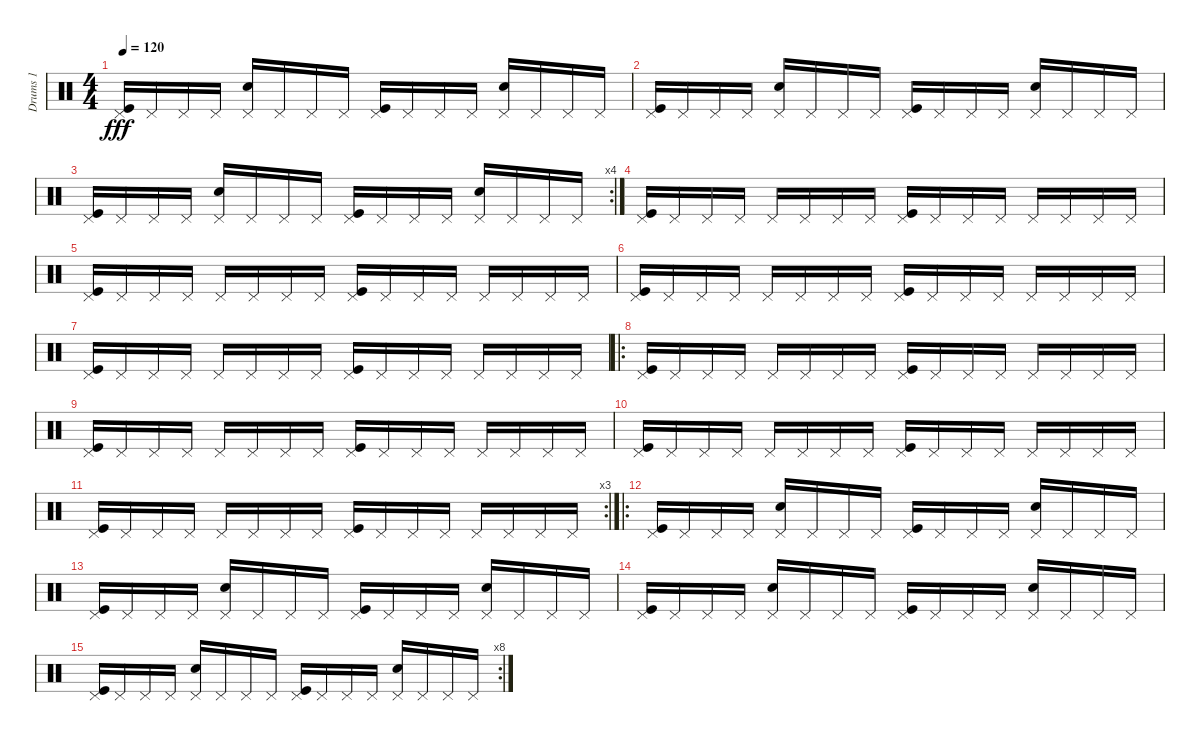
\track ("Drums 1" "Drums 1") {instrument percussion}
\staff {score}
\articulation defaults
\ts (4 4)
\tempo 120
\clef neutral
\ks c
("Pedal Hi-Hat (hit)" "Kick (hit)").16{dy fff} "Pedal Hi-Hat (hit)".16 "Pedal Hi-Hat (hit)".16 "Pedal Hi-Hat (hit)".16 ("Pedal Hi-Hat (hit)" "Snare (hit) 2").16 "Pedal Hi-Hat (hit)".16 "Pedal Hi-Hat (hit)".16 "Pedal Hi-Hat (hit)".16 ("Pedal Hi-Hat (hit)" "Kick (hit)").16 "Pedal Hi-Hat (hit)".16 "Pedal Hi-Hat (hit)".16 "Pedal Hi-Hat (hit)".16 ("Pedal Hi-Hat (hit)" "Snare (hit) 2").16 "Pedal Hi-Hat (hit)".16 "Pedal Hi-Hat (hit)".16 "Pedal Hi-Hat (hit)".16 |
("Pedal Hi-Hat (hit)" "Kick (hit)").16 "Pedal Hi-Hat (hit)".16 "Pedal Hi-Hat (hit)".16 "Pedal Hi-Hat (hit)".16 ("Pedal Hi-Hat (hit)" "Snare (hit) 2").16 "Pedal Hi-Hat (hit)".16 "Pedal Hi-Hat (hit)".16 "Pedal Hi-Hat (hit)".16 ("Pedal Hi-Hat (hit)" "Kick (hit)").16 "Pedal Hi-Hat (hit)".16 "Pedal Hi-Hat (hit)".16 "Pedal Hi-Hat (hit)".16 ("Pedal Hi-Hat (hit)" "Snare (hit) 2").16 "Pedal Hi-Hat (hit)".16 "Pedal Hi-Hat (hit)".16 "Pedal Hi-Hat (hit)".16 |
\rc 4
("Pedal Hi-Hat (hit)" "Kick (hit)").16 "Pedal Hi-Hat (hit)".16 "Pedal Hi-Hat (hit)".16 "Pedal Hi-Hat (hit)".16 ("Pedal Hi-Hat (hit)" "Snare (hit) 2").16 "Pedal Hi-Hat (hit)".16 "Pedal Hi-Hat (hit)".16 "Pedal Hi-Hat (hit)".16 ("Pedal Hi-Hat (hit)" "Kick (hit)").16 "Pedal Hi-Hat (hit)".16 "Pedal Hi-Hat (hit)".16 "Pedal Hi-Hat (hit)".16 ("Pedal Hi-Hat (hit)" "Snare (hit) 2").16 "Pedal Hi-Hat (hit)".16 "Pedal Hi-Hat (hit)".16 "Pedal Hi-Hat (hit)".16 |
("Pedal Hi-Hat (hit)" "Kick (hit)").16 "Pedal Hi-Hat (hit)".16 "Pedal Hi-Hat (hit)".16 "Pedal Hi-Hat (hit)".16 "Pedal Hi-Hat (hit)".16 "Pedal Hi-Hat (hit)".16 "Pedal Hi-Hat (hit)".16 "Pedal Hi-Hat (hit)".16 ("Pedal Hi-Hat (hit)" "Kick (hit)").16 "Pedal Hi-Hat (hit)".16 "Pedal Hi-Hat (hit)".16 "Pedal Hi-Hat (hit)".16 "Pedal Hi-Hat (hit)".16 "Pedal Hi-Hat (hit)".16 "Pedal Hi-Hat (hit)".16 "Pedal Hi-Hat (hit)".16 |
("Pedal Hi-Hat (hit)" "Kick (hit)").16 "Pedal Hi-Hat (hit)".16 "Pedal Hi-Hat (hit)".16 "Pedal Hi-Hat (hit)".16 "Pedal Hi-Hat (hit)".16 "Pedal Hi-Hat (hit)".16 "Pedal Hi-Hat (hit)".16 "Pedal Hi-Hat (hit)".16 ("Pedal Hi-Hat (hit)" "Kick (hit)").16 "Pedal Hi-Hat (hit)".16 "Pedal Hi-Hat (hit)".16 "Pedal Hi-Hat (hit)".16 "Pedal Hi-Hat (hit)".16 "Pedal Hi-Hat (hit)".16 "Pedal Hi-Hat (hit)".16 "Pedal Hi-Hat (hit)".16 |
("Pedal Hi-Hat (hit)" "Kick (hit)").16 "Pedal Hi-Hat (hit)".16 "Pedal Hi-Hat (hit)".16 "Pedal Hi-Hat (hit)".16 "Pedal Hi-Hat (hit)".16 "Pedal Hi-Hat (hit)".16 "Pedal Hi-Hat (hit)".16 "Pedal Hi-Hat (hit)".16 ("Pedal Hi-Hat (hit)" "Kick (hit)").16 "Pedal Hi-Hat (hit)".16 "Pedal Hi-Hat (hit)".16 "Pedal Hi-Hat (hit)".16 "Pedal Hi-Hat (hit)".16 "Pedal Hi-Hat (hit)".16 "Pedal Hi-Hat (hit)".16 "Pedal Hi-Hat (hit)".16 |
("Pedal Hi-Hat (hit)" "Kick (hit)").16 "Pedal Hi-Hat (hit)".16 "Pedal Hi-Hat (hit)".16 "Pedal Hi-Hat (hit)".16 "Pedal Hi-Hat (hit)".16 "Pedal Hi-Hat (hit)".16 "Pedal Hi-Hat (hit)".16 "Pedal Hi-Hat (hit)".16 ("Pedal Hi-Hat (hit)" "Kick (hit)").16 "Pedal Hi-Hat (hit)".16 "Pedal Hi-Hat (hit)".16 "Pedal Hi-Hat (hit)".16 "Pedal Hi-Hat (hit)".16 "Pedal Hi-Hat (hit)".16 "Pedal Hi-Hat (hit)".16 "Pedal Hi-Hat (hit)".16 |
\ro
("Pedal Hi-Hat (hit)" "Kick (hit)").16 "Pedal Hi-Hat (hit)".16 "Pedal Hi-Hat (hit)".16 "Pedal Hi-Hat (hit)".16 "Pedal Hi-Hat (hit)".16 "Pedal Hi-Hat (hit)".16 "Pedal Hi-Hat (hit)".16 "Pedal Hi-Hat (hit)".16 ("Pedal Hi-Hat (hit)" "Kick (hit)").16 "Pedal Hi-Hat (hit)".16 "Pedal Hi-Hat (hit)".16 "Pedal Hi-Hat (hit)".16 "Pedal Hi-Hat (hit)".16 "Pedal Hi-Hat (hit)".16 "Pedal Hi-Hat (hit)".16 "Pedal Hi-Hat (hit)".16 |
("Pedal Hi-Hat (hit)" "Kick (hit)").16 "Pedal Hi-Hat (hit)".16 "Pedal Hi-Hat (hit)".16 "Pedal Hi-Hat (hit)".16 "Pedal Hi-Hat (hit)".16 "Pedal Hi-Hat (hit)".16 "Pedal Hi-Hat (hit)".16 "Pedal Hi-Hat (hit)".16 ("Pedal Hi-Hat (hit)" "Kick (hit)").16 "Pedal Hi-Hat (hit)".16 "Pedal Hi-Hat (hit)".16 "Pedal Hi-Hat (hit)".16 "Pedal Hi-Hat (hit)".16 "Pedal Hi-Hat (hit)".16 "Pedal Hi-Hat (hit)".16 "Pedal Hi-Hat (hit)".16 |
("Pedal Hi-Hat (hit)" "Kick (hit)").16 "Pedal Hi-Hat (hit)".16 "Pedal Hi-Hat (hit)".16 "Pedal Hi-Hat (hit)".16 "Pedal Hi-Hat (hit)".16 "Pedal Hi-Hat (hit)".16 "Pedal Hi-Hat (hit)".16 "Pedal Hi-Hat (hit)".16 ("Pedal Hi-Hat (hit)" "Kick (hit)").16 "Pedal Hi-Hat (hit)".16 "Pedal Hi-Hat (hit)".16 "Pedal Hi-Hat (hit)".16 "Pedal Hi-Hat (hit)".16 "Pedal Hi-Hat (hit)".16 "Pedal Hi-Hat (hit)".16 "Pedal Hi-Hat (hit)".16 |
\rc 3
("Pedal Hi-Hat (hit)" "Kick (hit)").16 "Pedal Hi-Hat (hit)".16 "Pedal Hi-Hat (hit)".16 "Pedal Hi-Hat (hit)".16 "Pedal Hi-Hat (hit)".16 "Pedal Hi-Hat (hit)".16 "Pedal Hi-Hat (hit)".16 "Pedal Hi-Hat (hit)".16 ("Pedal Hi-Hat (hit)" "Kick (hit)").16 "Pedal Hi-Hat (hit)".16 "Pedal Hi-Hat (hit)".16 "Pedal Hi-Hat (hit)".16 "Pedal Hi-Hat (hit)".16 "Pedal Hi-Hat (hit)".16 "Pedal Hi-Hat (hit)".16 "Pedal Hi-Hat (hit)".16 |
\ro
("Pedal Hi-Hat (hit)" "Kick (hit)").16 "Pedal Hi-Hat (hit)".16 "Pedal Hi-Hat (hit)".16 "Pedal Hi-Hat (hit)".16 ("Pedal Hi-Hat (hit)" "Snare (hit) 2").16 "Pedal Hi-Hat (hit)".16 "Pedal Hi-Hat (hit)".16 "Pedal Hi-Hat (hit)".16 ("Pedal Hi-Hat (hit)" "Kick (hit)").16 "Pedal Hi-Hat (hit)".16 "Pedal Hi-Hat (hit)".16 "Pedal Hi-Hat (hit)".16 ("Pedal Hi-Hat (hit)" "Snare (hit) 2").16 "Pedal Hi-Hat (hit)".16 "Pedal Hi-Hat (hit)".16 "Pedal Hi-Hat (hit)".16 |
("Pedal Hi-Hat (hit)" "Kick (hit)").16 "Pedal Hi-Hat (hit)".16 "Pedal Hi-Hat (hit)".16 "Pedal Hi-Hat (hit)".16 ("Pedal Hi-Hat (hit)" "Snare (hit) 2").16 "Pedal Hi-Hat (hit)".16 "Pedal Hi-Hat (hit)".16 "Pedal Hi-Hat (hit)".16 ("Pedal Hi-Hat (hit)" "Kick (hit)").16 "Pedal Hi-Hat (hit)".16 "Pedal Hi-Hat (hit)".16 "Pedal Hi-Hat (hit)".16 ("Pedal Hi-Hat (hit)" "Snare (hit) 2").16 "Pedal Hi-Hat (hit)".16 "Pedal Hi-Hat (hit)".16 "Pedal Hi-Hat (hit)".16 |
("Pedal Hi-Hat (hit)" "Kick (hit)").16 "Pedal Hi-Hat (hit)".16 "Pedal Hi-Hat (hit)".16 "Pedal Hi-Hat (hit)".16 ("Pedal Hi-Hat (hit)" "Snare (hit) 2").16 "Pedal Hi-Hat (hit)".16 "Pedal Hi-Hat (hit)".16 "Pedal Hi-Hat (hit)".16 ("Pedal Hi-Hat (hit)" "Kick (hit)").16 "Pedal Hi-Hat (hit)".16 "Pedal Hi-Hat (hit)".16 "Pedal Hi-Hat (hit)".16 ("Pedal Hi-Hat (hit)" "Snare (hit) 2").16 "Pedal Hi-Hat (hit)".16 "Pedal Hi-Hat (hit)".16 "Pedal Hi-Hat (hit)".16 |
\rc 8
("Pedal Hi-Hat (hit)" "Kick (hit)").16 "Pedal Hi-Hat (hit)".16 "Pedal Hi-Hat (hit)".16 "Pedal Hi-Hat (hit)".16 ("Pedal Hi-Hat (hit)" "Snare (hit) 2").16 "Pedal Hi-Hat (hit)".16 "Pedal Hi-Hat (hit)".16 "Pedal Hi-Hat (hit)".16 ("Pedal Hi-Hat (hit)" "Kick (hit)").16 "Pedal Hi-Hat (hit)".16 "Pedal Hi-Hat (hit)".16 "Pedal Hi-Hat (hit)".16 ("Pedal Hi-Hat (hit)" "Snare (hit) 2").16 "Pedal Hi-Hat (hit)".16 "Pedal Hi-Hat (hit)".16 "Pedal Hi-Hat (hit)".16
